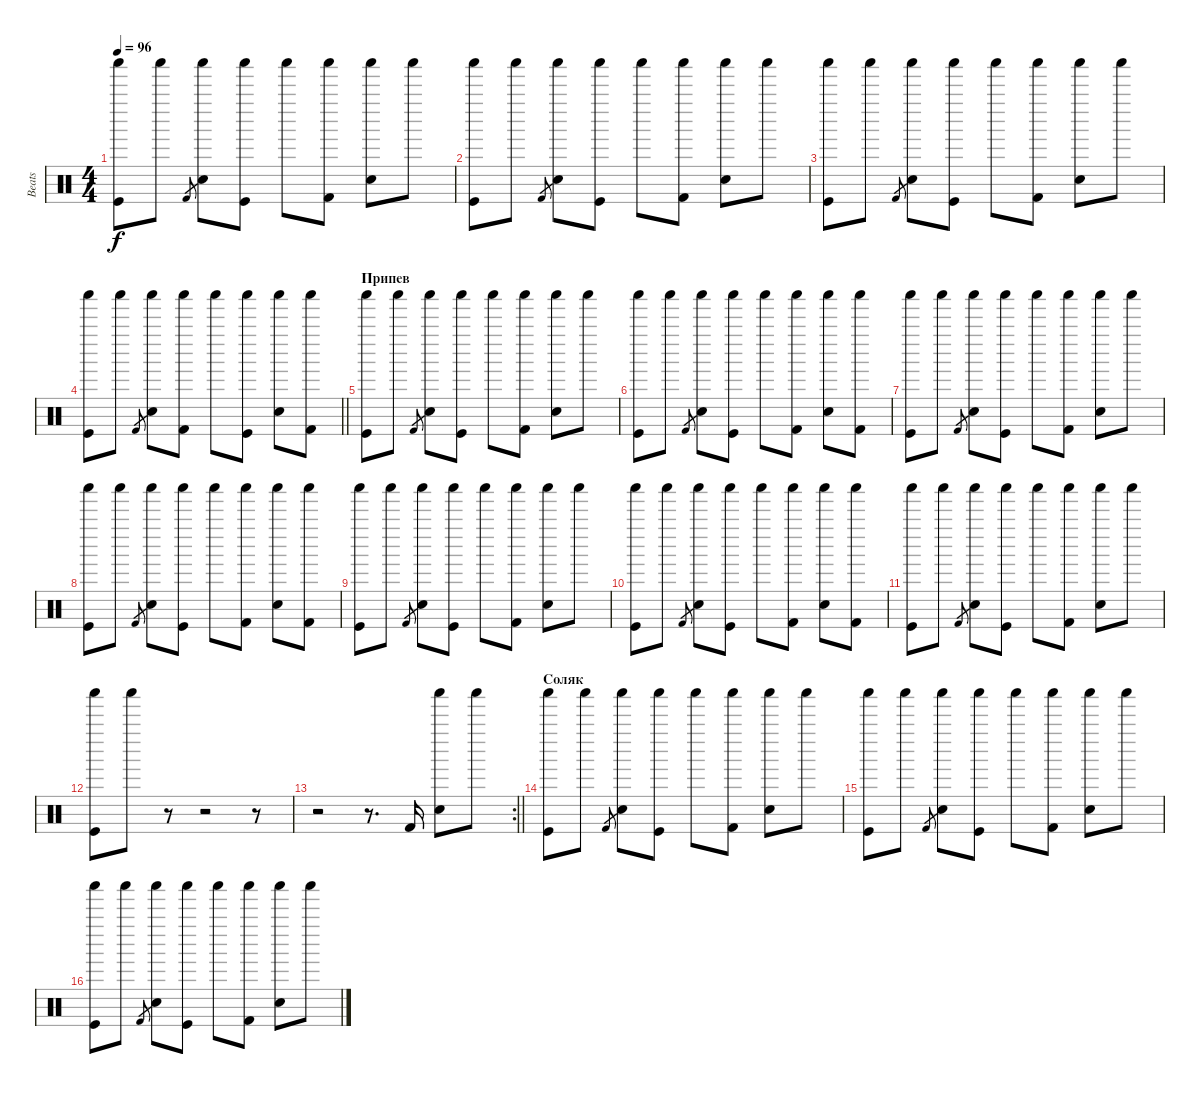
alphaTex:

\track ("Beats" "Beats") {instrument percussion}
\staff {score}
\articulation defaults
\ts (4 4)
\tempo 96
\clef neutral
\ks c
("Shaker (hit)" "Kick (hit)").8{dy f} "Shaker (hit)".8 "Kick (hit) 2".8{gr} ("Shaker (hit)" "Snare (hit) 2").8 ("Shaker (hit)" "Kick (hit)").8 "Shaker (hit)".8 ("Shaker (hit)" "Kick (hit) 2").8 ("Shaker (hit)" "Snare (hit) 2").8 "Shaker (hit)".8 |
("Shaker (hit)" "Kick (hit)").8 "Shaker (hit)".8 "Kick (hit) 2".8{gr} ("Shaker (hit)" "Snare (hit) 2").8 ("Shaker (hit)" "Kick (hit)").8 "Shaker (hit)".8 ("Shaker (hit)" "Kick (hit) 2").8 ("Shaker (hit)" "Snare (hit) 2").8 "Shaker (hit)".8 |
("Shaker (hit)" "Kick (hit)").8 "Shaker (hit)".8 "Kick (hit) 2".8{gr} ("Shaker (hit)" "Snare (hit) 2").8 ("Shaker (hit)" "Kick (hit)").8 "Shaker (hit)".8 ("Shaker (hit)" "Kick (hit) 2").8 ("Shaker (hit)" "Snare (hit) 2").8 "Shaker (hit)".8 |
\barLineRight lightlight
("Shaker (hit)" "Kick (hit)").8 "Shaker (hit)".8 "Kick (hit) 2".8{gr} ("Shaker (hit)" "Snare (hit) 2").8 ("Shaker (hit)" "Kick (hit) 2").8 "Shaker (hit)".8 ("Shaker (hit)" "Kick (hit)").8 ("Shaker (hit)" "Snare (hit) 2").8 ("Shaker (hit)" "Kick (hit) 2").8 |
\section ("" "Припев ")
("Shaker (hit)" "Kick (hit)").8 "Shaker (hit)".8 "Kick (hit) 2".8{gr} ("Shaker (hit)" "Snare (hit) 2").8 ("Shaker (hit)" "Kick (hit)").8 "Shaker (hit)".8 ("Shaker (hit)" "Kick (hit) 2").8 ("Shaker (hit)" "Snare (hit) 2").8 "Shaker (hit)".8 |
("Shaker (hit)" "Kick (hit)").8 "Shaker (hit)".8 "Kick (hit) 2".8{gr} ("Shaker (hit)" "Snare (hit) 2").8 ("Shaker (hit)" "Kick (hit)").8 "Shaker (hit)".8 ("Shaker (hit)" "Kick (hit) 2").8 ("Shaker (hit)" "Snare (hit) 2").8 ("Shaker (hit)" "Kick (hit) 2").8 |
("Shaker (hit)" "Kick (hit)").8 "Shaker (hit)".8 "Kick (hit) 2".8{gr} ("Shaker (hit)" "Snare (hit) 2").8 ("Shaker (hit)" "Kick (hit)").8 "Shaker (hit)".8 ("Shaker (hit)" "Kick (hit) 2").8 ("Shaker (hit)" "Snare (hit) 2").8 "Shaker (hit)".8 |
("Shaker (hit)" "Kick (hit)").8 "Shaker (hit)".8 "Kick (hit) 2".8{gr} ("Shaker (hit)" "Snare (hit) 2").8 ("Shaker (hit)" "Kick (hit)").8 "Shaker (hit)".8 ("Shaker (hit)" "Kick (hit) 2").8 ("Shaker (hit)" "Snare (hit) 2").8 ("Shaker (hit)" "Kick (hit) 2").8 |
("Shaker (hit)" "Kick (hit)").8 "Shaker (hit)".8 "Kick (hit) 2".8{gr} ("Shaker (hit)" "Snare (hit) 2").8 ("Shaker (hit)" "Kick (hit)").8 "Shaker (hit)".8 ("Shaker (hit)" "Kick (hit) 2").8 ("Shaker (hit)" "Snare (hit) 2").8 "Shaker (hit)".8 |
("Shaker (hit)" "Kick (hit)").8 "Shaker (hit)".8 "Kick (hit) 2".8{gr} ("Shaker (hit)" "Snare (hit) 2").8 ("Shaker (hit)" "Kick (hit)").8 "Shaker (hit)".8 ("Shaker (hit)" "Kick (hit) 2").8 ("Shaker (hit)" "Snare (hit) 2").8 ("Shaker (hit)" "Kick (hit) 2").8 |
("Shaker (hit)" "Kick (hit)").8 "Shaker (hit)".8 "Kick (hit) 2".8{gr} ("Shaker (hit)" "Snare (hit) 2").8 ("Shaker (hit)" "Kick (hit)").8 "Shaker (hit)".8 ("Shaker (hit)" "Kick (hit) 2").8 ("Shaker (hit)" "Snare (hit) 2").8 "Shaker (hit)".8 |
("Shaker (hit)" "Kick (hit)").8 "Shaker (hit)".8 r.8 r.2 r.8 |
\rc 2
\barLineRight lightlight
r.2 r.8{d} "Kick (hit) 2".16 ("Shaker (hit)" "Snare (hit) 2").8 "Shaker (hit)".8 |
\section ("" "Соляк ")
("Shaker (hit)" "Kick (hit)").8 "Shaker (hit)".8 "Kick (hit) 2".8{gr} ("Shaker (hit)" "Snare (hit) 2").8 ("Shaker (hit)" "Kick (hit)").8 "Shaker (hit)".8 ("Shaker (hit)" "Kick (hit) 2").8 ("Shaker (hit)" "Snare (hit) 2").8 "Shaker (hit)".8 |
("Shaker (hit)" "Kick (hit)").8 "Shaker (hit)".8 "Kick (hit) 2".8{gr} ("Shaker (hit)" "Snare (hit) 2").8 ("Shaker (hit)" "Kick (hit)").8 "Shaker (hit)".8 ("Shaker (hit)" "Kick (hit) 2").8 ("Shaker (hit)" "Snare (hit) 2").8 "Shaker (hit)".8 |
("Shaker (hit)" "Kick (hit)").8 "Shaker (hit)".8 "Kick (hit) 2".8{gr} ("Shaker (hit)" "Snare (hit) 2").8 ("Shaker (hit)" "Kick (hit)").8 "Shaker (hit)".8 ("Shaker (hit)" "Kick (hit) 2").8 ("Shaker (hit)" "Snare (hit) 2").8 "Shaker (hit)".8
